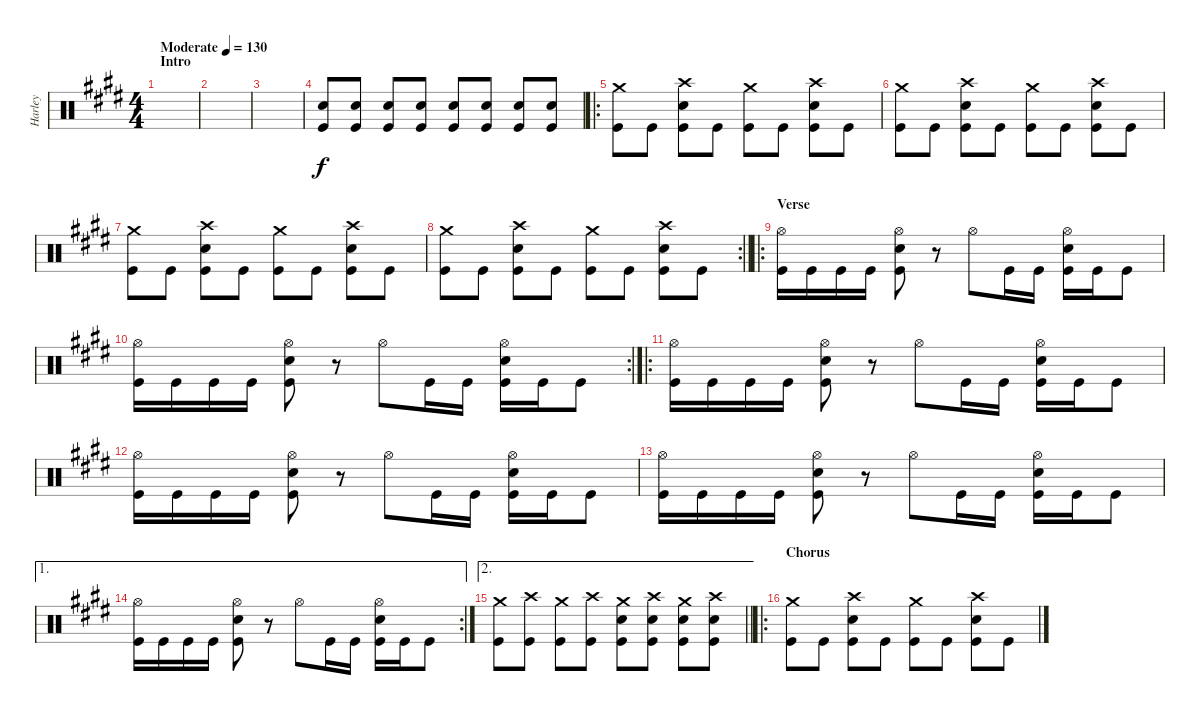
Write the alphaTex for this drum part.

\track ("Harley" "Harley") {instrument percussion}
\staff {score}
\articulation defaults
\ts (4 4)
\section ("" "Intro")
\tempo (130 "Moderate")
\clef neutral
\ks c#minor
|
|
|
("Snare (hit) 2" "Kick (hit)").8{volume 13} ("Snare (hit) 2" "Kick (hit)").8 ("Snare (hit) 2" "Kick (hit)").8 ("Snare (hit) 2" "Kick (hit)").8 ("Snare (hit) 2" "Kick (hit)").8 ("Snare (hit) 2" "Kick (hit)").8 ("Snare (hit) 2" "Kick (hit)").8 ("Snare (hit) 2" "Kick (hit)").8 |
\ro
("Crash medium (hit)" "Kick (hit)").8 "Kick (hit)".8 ("Crash high (hit)" "Snare (hit) 2" "Kick (hit)").8 "Kick (hit)".8 ("Crash medium (hit)" "Kick (hit)").8 "Kick (hit)".8 ("Crash high (hit)" "Snare (hit) 2" "Kick (hit)").8 "Kick (hit)".8 |
("Crash medium (hit)" "Kick (hit)").8 "Kick (hit)".8 ("Crash high (hit)" "Snare (hit) 2" "Kick (hit)").8 "Kick (hit)".8 ("Crash medium (hit)" "Kick (hit)").8 "Kick (hit)".8 ("Crash high (hit)" "Snare (hit) 2" "Kick (hit)").8 "Kick (hit)".8 |
("Crash medium (hit)" "Kick (hit)").8 "Kick (hit)".8 ("Crash high (hit)" "Snare (hit) 2" "Kick (hit)").8 "Kick (hit)".8 ("Crash medium (hit)" "Kick (hit)").8 "Kick (hit)".8 ("Crash high (hit)" "Snare (hit) 2" "Kick (hit)").8 "Kick (hit)".8 |
\rc 2
\barLineRight lightlight
("Crash medium (hit)" "Kick (hit)").8 "Kick (hit)".8 ("Crash high (hit)" "Snare (hit) 2" "Kick (hit)").8 "Kick (hit)".8 ("Crash medium (hit)" "Kick (hit)").8 "Kick (hit)".8 ("Crash high (hit)" "Snare (hit) 2" "Kick (hit)").8 "Kick (hit)".8 |
\ro
\section ("" "Verse")
("Hi-Hat (open)" "Kick (hit)").16 "Kick (hit)".16 "Kick (hit)".16 "Kick (hit)".16 ("Hi-Hat (open)" "Snare (hit) 2" "Kick (hit)").8 r.8 "Hi-Hat (open)".8 "Kick (hit)".16 "Kick (hit)".16 ("Hi-Hat (open)" "Snare (hit) 2" "Kick (hit)").16 "Kick (hit)".16 "Kick (hit)".8 |
\rc 2
("Hi-Hat (open)" "Kick (hit)").16 "Kick (hit)".16 "Kick (hit)".16 "Kick (hit)".16 ("Hi-Hat (open)" "Snare (hit) 2" "Kick (hit)").8 r.8 "Hi-Hat (open)".8 "Kick (hit)".16 "Kick (hit)".16 ("Hi-Hat (open)" "Snare (hit) 2" "Kick (hit)").16 "Kick (hit)".16 "Kick (hit)".8 |
\ro
("Hi-Hat (open)" "Kick (hit)").16 "Kick (hit)".16 "Kick (hit)".16 "Kick (hit)".16 ("Hi-Hat (open)" "Snare (hit) 2" "Kick (hit)").8 r.8 "Hi-Hat (open)".8 "Kick (hit)".16 "Kick (hit)".16 ("Hi-Hat (open)" "Snare (hit) 2" "Kick (hit)").16 "Kick (hit)".16 "Kick (hit)".8 |
("Hi-Hat (open)" "Kick (hit)").16 "Kick (hit)".16 "Kick (hit)".16 "Kick (hit)".16 ("Hi-Hat (open)" "Snare (hit) 2" "Kick (hit)").8 r.8 "Hi-Hat (open)".8 "Kick (hit)".16 "Kick (hit)".16 ("Hi-Hat (open)" "Snare (hit) 2" "Kick (hit)").16 "Kick (hit)".16 "Kick (hit)".8 |
("Hi-Hat (open)" "Kick (hit)").16 "Kick (hit)".16 "Kick (hit)".16 "Kick (hit)".16 ("Hi-Hat (open)" "Snare (hit) 2" "Kick (hit)").8 r.8 "Hi-Hat (open)".8 "Kick (hit)".16 "Kick (hit)".16 ("Hi-Hat (open)" "Snare (hit) 2" "Kick (hit)").16 "Kick (hit)".16 "Kick (hit)".8 |
\ae 1
\rc 2
("Hi-Hat (open)" "Kick (hit)").16 "Kick (hit)".16 "Kick (hit)".16 "Kick (hit)".16 ("Hi-Hat (open)" "Snare (hit) 2" "Kick (hit)").8 r.8 "Hi-Hat (open)".8 "Kick (hit)".16 "Kick (hit)".16 ("Hi-Hat (open)" "Snare (hit) 2" "Kick (hit)").16 "Kick (hit)".16 "Kick (hit)".8 |
\ae 2
\barLineRight lightlight
("Crash medium (hit)" "Kick (hit)").8 ("Crash high (hit)" "Kick (hit)").8 ("Crash medium (hit)" "Kick (hit)").8 ("Crash high (hit)" "Kick (hit)").8 ("Crash medium (hit)" "Snare (hit) 2" "Kick (hit)").8 ("Crash high (hit)" "Snare (hit) 2" "Kick (hit)").8 ("Crash medium (hit)" "Snare (hit) 2" "Kick (hit)").8 ("Crash high (hit)" "Snare (hit) 2" "Kick (hit)").8 |
\ro
\section ("" "Chorus")
("Crash medium (hit)" "Kick (hit)").8 "Kick (hit)".8 ("Crash high (hit)" "Snare (hit) 2" "Kick (hit)").8 "Kick (hit)".8 ("Crash medium (hit)" "Kick (hit)").8 "Kick (hit)".8 ("Crash high (hit)" "Snare (hit) 2" "Kick (hit)").8 "Kick (hit)".8
